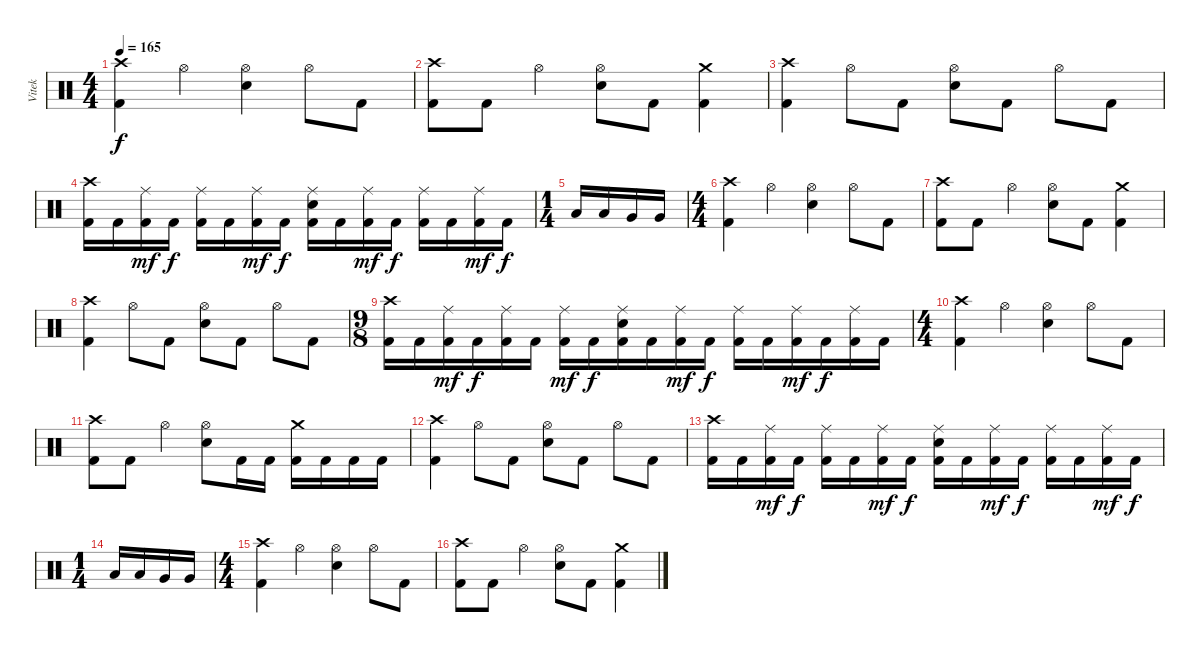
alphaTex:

\track ("Vitek" "Vitek") {instrument percussion}
\staff {score}
\articulation defaults
\ts (4 4)
\tempo 165
\clef neutral
\ks c
("Crash high (hit)" "Kick (hit) 2").4{dy f} "Hi-Hat (open)".4 ("Hi-Hat (open)" "Electric Snare (hit)").4 "Hi-Hat (open)".8 "Kick (hit) 2".8 |
("Crash high (hit)" "Kick (hit) 2").8 "Kick (hit) 2".8 "Hi-Hat (open)".4 ("Hi-Hat (open)" "Electric Snare (hit)").8 "Kick (hit) 2".8 ("Crash medium (hit)" "Kick (hit) 2").4 |
("Crash high (hit)" "Kick (hit) 2").4 "Hi-Hat (open)".8 "Kick (hit) 2".8 ("Hi-Hat (open)" "Electric Snare (hit)").8 "Kick (hit) 2".8 "Hi-Hat (open)".8 "Kick (hit) 2".8 |
("Crash high (hit)" "Kick (hit) 2").16 "Kick (hit) 2".16 ("Ride (middle)" "Kick (hit) 2").16{dy mf} "Kick (hit) 2".16{dy f} ("Ride (middle)" "Kick (hit) 2").16 "Kick (hit) 2".16 ("Ride (middle)" "Kick (hit) 2").16{dy mf} "Kick (hit) 2".16{dy f} ("Ride (middle)" "Electric Snare (hit)" "Kick (hit) 2").16 "Kick (hit) 2".16 ("Ride (middle)" "Kick (hit) 2").16{dy mf} "Kick (hit) 2".16{dy f} ("Ride (middle)" "Kick (hit) 2").16 "Kick (hit) 2".16 ("Ride (middle)" "Kick (hit) 2").16{dy mf} "Kick (hit) 2".16{dy f} |
\ts (1 4)
"Low Tom (hit)".16 "Low Tom (hit)".16 "Very Low Tom (hit)".16 "Very Low Tom (hit)".16 |
\ts (4 4)
("Crash high (hit)" "Kick (hit) 2").4 "Hi-Hat (open)".4 ("Hi-Hat (open)" "Electric Snare (hit)").4 "Hi-Hat (open)".8 "Kick (hit) 2".8 |
("Crash high (hit)" "Kick (hit) 2").8 "Kick (hit) 2".8 "Hi-Hat (open)".4 ("Hi-Hat (open)" "Electric Snare (hit)").8 "Kick (hit) 2".8 ("Crash medium (hit)" "Kick (hit) 2").4 |
("Crash high (hit)" "Kick (hit) 2").4 "Hi-Hat (open)".8 "Kick (hit) 2".8 ("Hi-Hat (open)" "Electric Snare (hit)").8 "Kick (hit) 2".8 "Hi-Hat (open)".8 "Kick (hit) 2".8 |
\ts (9 8)
("Crash high (hit)" "Kick (hit) 2").16 "Kick (hit) 2".16 ("Ride (middle)" "Kick (hit) 2").16{dy mf} "Kick (hit) 2".16{dy f} ("Ride (middle)" "Kick (hit) 2").16 "Kick (hit) 2".16 ("Ride (middle)" "Kick (hit) 2").16{dy mf} "Kick (hit) 2".16{dy f} ("Ride (middle)" "Electric Snare (hit)" "Kick (hit) 2").16 "Kick (hit) 2".16 ("Ride (middle)" "Kick (hit) 2").16{dy mf} "Kick (hit) 2".16{dy f} ("Ride (middle)" "Kick (hit) 2").16 "Kick (hit) 2".16 ("Ride (middle)" "Kick (hit) 2").16{dy mf} "Kick (hit) 2".16{dy f} ("Ride (middle)" "Kick (hit) 2").16 "Kick (hit) 2".16 |
\ts (4 4)
("Crash high (hit)" "Kick (hit) 2").4 "Hi-Hat (open)".4 ("Hi-Hat (open)" "Electric Snare (hit)").4 "Hi-Hat (open)".8 "Kick (hit) 2".8 |
("Crash high (hit)" "Kick (hit) 2").8 "Kick (hit) 2".8 "Hi-Hat (open)".4 ("Hi-Hat (open)" "Electric Snare (hit)").8 "Kick (hit) 2".16 "Kick (hit) 2".16 ("Crash medium (hit)" "Kick (hit) 2").16 "Kick (hit) 2".16 "Kick (hit) 2".16 "Kick (hit) 2".16 |
("Crash high (hit)" "Kick (hit) 2").4 "Hi-Hat (open)".8 "Kick (hit) 2".8 ("Hi-Hat (open)" "Electric Snare (hit)").8 "Kick (hit) 2".8 "Hi-Hat (open)".8 "Kick (hit) 2".8 |
("Crash high (hit)" "Kick (hit) 2").16 "Kick (hit) 2".16 ("Ride (middle)" "Kick (hit) 2").16{dy mf} "Kick (hit) 2".16{dy f} ("Ride (middle)" "Kick (hit) 2").16 "Kick (hit) 2".16 ("Ride (middle)" "Kick (hit) 2").16{dy mf} "Kick (hit) 2".16{dy f} ("Ride (middle)" "Electric Snare (hit)" "Kick (hit) 2").16 "Kick (hit) 2".16 ("Ride (middle)" "Kick (hit) 2").16{dy mf} "Kick (hit) 2".16{dy f} ("Ride (middle)" "Kick (hit) 2").16 "Kick (hit) 2".16 ("Ride (middle)" "Kick (hit) 2").16{dy mf} "Kick (hit) 2".16{dy f} |
\ts (1 4)
"Low Tom (hit)".16 "Low Tom (hit)".16 "Very Low Tom (hit)".16 "Very Low Tom (hit)".16 |
\ts (4 4)
("Crash high (hit)" "Kick (hit) 2").4 "Hi-Hat (open)".4 ("Hi-Hat (open)" "Electric Snare (hit)").4 "Hi-Hat (open)".8 "Kick (hit) 2".8 |
("Crash high (hit)" "Kick (hit) 2").8 "Kick (hit) 2".8 "Hi-Hat (open)".4 ("Hi-Hat (open)" "Electric Snare (hit)").8 "Kick (hit) 2".8 ("Crash medium (hit)" "Kick (hit) 2").4
